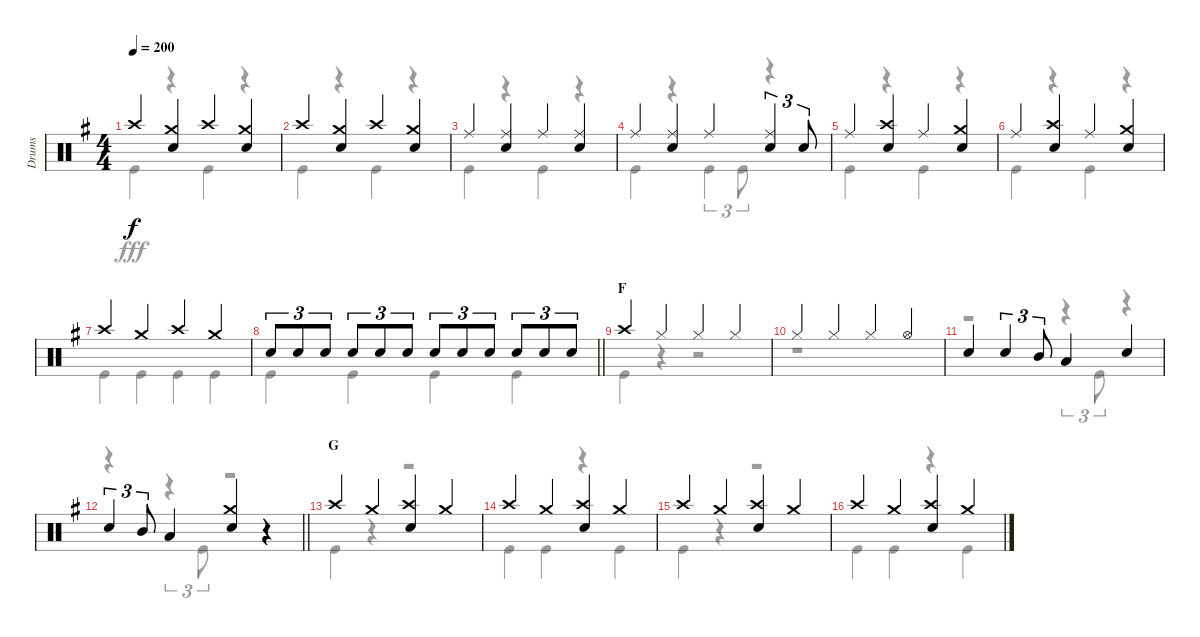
\track ("Drums" "Drums") {instrument percussion}
\staff {score}
\articulation defaults
\voice
\ts (4 4)
\tempo 200
\clef neutral
\ks g "Crash high (hit)".4{dy f}
("Crash medium (hit)" "Snare (hit) 2").4 "Crash high (hit)".4 ("Crash medium (hit)" "Snare (hit) 2").4 |
"Crash high (hit)".4 ("Crash medium (hit)" "Snare (hit) 2").4 "Crash high (hit)".4 ("Crash medium (hit)" "Snare (hit) 2").4 |
"Ride (middle)".4 ("Ride (middle)" "Snare (hit) 2").4 "Ride (middle)".4 ("Ride (middle)" "Snare (hit) 2").4 |
"Ride (middle)".4 ("Ride (middle)" "Snare (hit) 2").4 "Ride (middle)".4 ("Ride (middle)" "Snare (hit) 2").4{tu (3 2)} "Snare (hit) 2".8{tu (3 2)} |
"Ride (middle)".4 ("Crash high (hit)" "Snare (hit) 2").4 "Ride (middle)".4 ("Crash medium (hit)" "Snare (hit) 2").4 |
"Ride (middle)".4 ("Crash high (hit)" "Snare (hit) 2").4 "Ride (middle)".4 ("Crash medium (hit)" "Snare (hit) 2").4 |
"Crash high (hit)".4 "Crash medium (hit)".4 "Crash high (hit)".4 "Crash medium (hit)".4 |
\barLineRight lightlight "Snare (hit) 2".8{tu (3 2)} "Snare (hit) 2".8{tu (3 2)} "Snare (hit) 2".8{tu (3 2)} "Snare (hit) 2".8{tu (3 2)} "Snare (hit) 2".8{tu (3 2)} "Snare (hit) 2".8{tu (3 2)} "Snare (hit) 2".8{tu (3 2)} "Snare (hit) 2".8{tu (3 2)} "Snare (hit) 2".8{tu (3 2)} "Snare (hit) 2".8{tu (3 2)} "Snare (hit) 2".8{tu (3 2)} "Snare (hit) 2".8{tu (3 2)}
|
\section ("" "F")
"Crash high (hit)".4 "Hi-Hat (closed)".4 "Hi-Hat (closed)".4 "Hi-Hat (closed)".4 |
"Hi-Hat (closed)".4 "Hi-Hat (closed)".4 "Hi-Hat (closed)".4 "Hi-Hat (open)".4 |
"Snare (hit) 2".4 "Snare (hit) 2".4{tu (3 2)} "Mid Tom (hit)".8{tu (3 2)} "Low Tom (hit)".4 "Snare (hit) 2".4 |
\barLineRight lightlight "Snare (hit) 2".4{tu (3 2)} "Mid Tom (hit)".8{tu (3 2)} "Low Tom (hit)".4
("Crash medium (hit)" "Snare (hit) 2").4 r.4 |
\section ("" "G")
"Crash high (hit)".4 "Crash medium (hit)".4 ("Crash high (hit)" "Snare (hit) 2").4 "Crash medium (hit)".4 |
"Crash high (hit)".4 "Crash medium (hit)".4 ("Crash high (hit)" "Snare (hit) 2").4 "Crash medium (hit)".4 |
"Crash high (hit)".4 "Crash medium (hit)".4 ("Crash high (hit)" "Snare (hit) 2").4 "Crash medium (hit)".4 |
"Crash high (hit)".4 "Crash medium (hit)".4 ("Crash high (hit)" "Snare (hit) 2").4 "Crash medium (hit)".4
\voice
\clef neutral
\ottava regular
\simile none
\ks g "Kick (hit)".4{dy fff}
r.4 "Kick (hit)".4 r.4 |
"Kick (hit)".4 r.4 "Kick (hit)".4 r.4 |
"Kick (hit)".4 r.4 "Kick (hit)".4 r.4 |
"Kick (hit)".4 r.4 "Kick (hit)".4{tu (3 2)} "Kick (hit)".8{tu (3 2)} r.4 |
"Kick (hit)".4 r.4 "Kick (hit)".4 r.4 |
"Kick (hit)".4 r.4 "Kick (hit)".4 r.4 |
"Kick (hit)".4 "Kick (hit)".4 "Kick (hit)".4 "Kick (hit)".4 |
\barLineRight lightlight "Kick (hit)".4 "Kick (hit)".4 "Kick (hit)".4 "Kick (hit)".4
|
"Kick (hit)".4 r.4 r.2 |
r.1 |
r.2 r.4{tu (3 2)} "Kick (hit)".8{tu (3 2)} r.4 |
\barLineRight lightlight
r.4 r.4{tu (3 2)} "Kick (hit)".8{tu (3 2)} r.2 |
"Kick (hit)".4 r.4 r.2 |
"Kick (hit)".4 "Kick (hit)".4 r.4 "Kick (hit)".4 |
"Kick (hit)".4 r.4 r.2 |
"Kick (hit)".4 "Kick (hit)".4 r.4 "Kick (hit)".4
